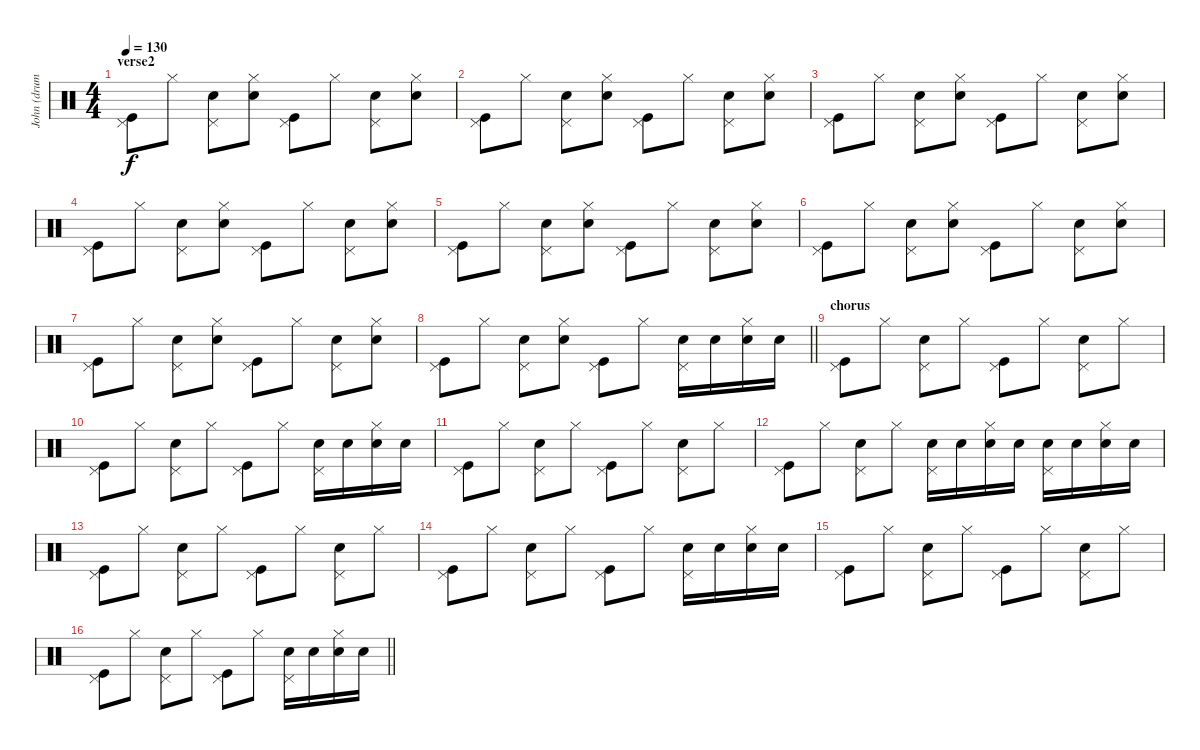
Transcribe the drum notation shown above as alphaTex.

\track ("John (drums)" "John (drum") {instrument percussion}
\staff {score}
\articulation defaults
\ts (4 4)
\section ("" "verse2")
\tempo 130
\clef neutral
\ks c
("Pedal Hi-Hat (hit)" "Kick (hit)").8{dy f} "Hi-Hat (closed)".8 ("Pedal Hi-Hat (hit)" "Electric Snare (hit)").8 ("Hi-Hat (closed)" "Electric Snare (hit)").8 ("Pedal Hi-Hat (hit)" "Kick (hit)").8 "Hi-Hat (closed)".8 ("Pedal Hi-Hat (hit)" "Electric Snare (hit)").8 ("Hi-Hat (closed)" "Electric Snare (hit)").8 |
("Pedal Hi-Hat (hit)" "Kick (hit)").8 "Hi-Hat (closed)".8 ("Pedal Hi-Hat (hit)" "Electric Snare (hit)").8 ("Hi-Hat (closed)" "Electric Snare (hit)").8 ("Pedal Hi-Hat (hit)" "Kick (hit)").8 "Hi-Hat (closed)".8 ("Pedal Hi-Hat (hit)" "Electric Snare (hit)").8 ("Hi-Hat (closed)" "Electric Snare (hit)").8 |
("Pedal Hi-Hat (hit)" "Kick (hit)").8 "Hi-Hat (closed)".8 ("Pedal Hi-Hat (hit)" "Electric Snare (hit)").8 ("Hi-Hat (closed)" "Electric Snare (hit)").8 ("Pedal Hi-Hat (hit)" "Kick (hit)").8 "Hi-Hat (closed)".8 ("Pedal Hi-Hat (hit)" "Electric Snare (hit)").8 ("Hi-Hat (closed)" "Electric Snare (hit)").8 |
("Pedal Hi-Hat (hit)" "Kick (hit)").8 "Hi-Hat (closed)".8 ("Pedal Hi-Hat (hit)" "Electric Snare (hit)").8 ("Hi-Hat (closed)" "Electric Snare (hit)").8 ("Pedal Hi-Hat (hit)" "Kick (hit)").8 "Hi-Hat (closed)".8 ("Pedal Hi-Hat (hit)" "Electric Snare (hit)").8 ("Hi-Hat (closed)" "Electric Snare (hit)").8 |
("Pedal Hi-Hat (hit)" "Kick (hit)").8 "Hi-Hat (closed)".8 ("Pedal Hi-Hat (hit)" "Electric Snare (hit)").8 ("Hi-Hat (closed)" "Electric Snare (hit)").8 ("Pedal Hi-Hat (hit)" "Kick (hit)").8 "Hi-Hat (closed)".8 ("Pedal Hi-Hat (hit)" "Electric Snare (hit)").8 ("Hi-Hat (closed)" "Electric Snare (hit)").8 |
("Pedal Hi-Hat (hit)" "Kick (hit)").8 "Hi-Hat (closed)".8 ("Pedal Hi-Hat (hit)" "Electric Snare (hit)").8 ("Hi-Hat (closed)" "Electric Snare (hit)").8 ("Pedal Hi-Hat (hit)" "Kick (hit)").8 "Hi-Hat (closed)".8 ("Pedal Hi-Hat (hit)" "Electric Snare (hit)").8 ("Hi-Hat (closed)" "Electric Snare (hit)").8 |
("Pedal Hi-Hat (hit)" "Kick (hit)").8 "Hi-Hat (closed)".8 ("Pedal Hi-Hat (hit)" "Electric Snare (hit)").8 ("Hi-Hat (closed)" "Electric Snare (hit)").8 ("Pedal Hi-Hat (hit)" "Kick (hit)").8 "Hi-Hat (closed)".8 ("Pedal Hi-Hat (hit)" "Electric Snare (hit)").8 ("Hi-Hat (closed)" "Electric Snare (hit)").8 |
\barLineRight lightlight
("Pedal Hi-Hat (hit)" "Kick (hit)").8 "Hi-Hat (closed)".8 ("Pedal Hi-Hat (hit)" "Electric Snare (hit)").8 ("Hi-Hat (closed)" "Electric Snare (hit)").8 ("Pedal Hi-Hat (hit)" "Kick (hit)").8 "Hi-Hat (closed)".8 ("Pedal Hi-Hat (hit)" "Electric Snare (hit)").16 "Electric Snare (hit)".16 ("Hi-Hat (closed)" "Electric Snare (hit)").16 "Electric Snare (hit)".16 |
\section ("" "chorus")
("Pedal Hi-Hat (hit)" "Kick (hit)").8 "Hi-Hat (closed)".8 ("Pedal Hi-Hat (hit)" "Electric Snare (hit)").8 "Hi-Hat (closed)".8 ("Pedal Hi-Hat (hit)" "Kick (hit)").8 "Hi-Hat (closed)".8 ("Pedal Hi-Hat (hit)" "Electric Snare (hit)").8 "Hi-Hat (closed)".8 |
("Pedal Hi-Hat (hit)" "Kick (hit)").8 "Hi-Hat (closed)".8 ("Pedal Hi-Hat (hit)" "Electric Snare (hit)").8 "Hi-Hat (closed)".8 ("Pedal Hi-Hat (hit)" "Kick (hit)").8 "Hi-Hat (closed)".8 ("Pedal Hi-Hat (hit)" "Electric Snare (hit)").16 "Electric Snare (hit)".16 ("Hi-Hat (closed)" "Electric Snare (hit)").16 "Electric Snare (hit)".16 |
("Pedal Hi-Hat (hit)" "Kick (hit)").8 "Hi-Hat (closed)".8 ("Pedal Hi-Hat (hit)" "Electric Snare (hit)").8 "Hi-Hat (closed)".8 ("Pedal Hi-Hat (hit)" "Kick (hit)").8 "Hi-Hat (closed)".8 ("Pedal Hi-Hat (hit)" "Electric Snare (hit)").8 "Hi-Hat (closed)".8 |
("Pedal Hi-Hat (hit)" "Kick (hit)").8 "Hi-Hat (closed)".8 ("Pedal Hi-Hat (hit)" "Electric Snare (hit)").8 "Hi-Hat (closed)".8 ("Pedal Hi-Hat (hit)" "Electric Snare (hit)").16 "Electric Snare (hit)".16 ("Hi-Hat (closed)" "Electric Snare (hit)").16 "Electric Snare (hit)".16 ("Pedal Hi-Hat (hit)" "Electric Snare (hit)").16 "Electric Snare (hit)".16 ("Hi-Hat (closed)" "Electric Snare (hit)").16 "Electric Snare (hit)".16 |
("Pedal Hi-Hat (hit)" "Kick (hit)").8 "Hi-Hat (closed)".8 ("Pedal Hi-Hat (hit)" "Electric Snare (hit)").8 "Hi-Hat (closed)".8 ("Pedal Hi-Hat (hit)" "Kick (hit)").8 "Hi-Hat (closed)".8 ("Pedal Hi-Hat (hit)" "Electric Snare (hit)").8 "Hi-Hat (closed)".8 |
("Pedal Hi-Hat (hit)" "Kick (hit)").8 "Hi-Hat (closed)".8 ("Pedal Hi-Hat (hit)" "Electric Snare (hit)").8 "Hi-Hat (closed)".8 ("Pedal Hi-Hat (hit)" "Kick (hit)").8 "Hi-Hat (closed)".8 ("Pedal Hi-Hat (hit)" "Electric Snare (hit)").16 "Electric Snare (hit)".16 ("Hi-Hat (closed)" "Electric Snare (hit)").16 "Electric Snare (hit)".16 |
("Pedal Hi-Hat (hit)" "Kick (hit)").8 "Hi-Hat (closed)".8 ("Pedal Hi-Hat (hit)" "Electric Snare (hit)").8 "Hi-Hat (closed)".8 ("Pedal Hi-Hat (hit)" "Kick (hit)").8 "Hi-Hat (closed)".8 ("Pedal Hi-Hat (hit)" "Electric Snare (hit)").8 "Hi-Hat (closed)".8 |
\barLineRight lightlight
("Pedal Hi-Hat (hit)" "Kick (hit)").8 "Hi-Hat (closed)".8 ("Pedal Hi-Hat (hit)" "Electric Snare (hit)").8 "Hi-Hat (closed)".8 ("Pedal Hi-Hat (hit)" "Kick (hit)").8 "Hi-Hat (closed)".8 ("Pedal Hi-Hat (hit)" "Electric Snare (hit)").16 "Electric Snare (hit)".16 ("Hi-Hat (closed)" "Electric Snare (hit)").16 "Electric Snare (hit)".16
